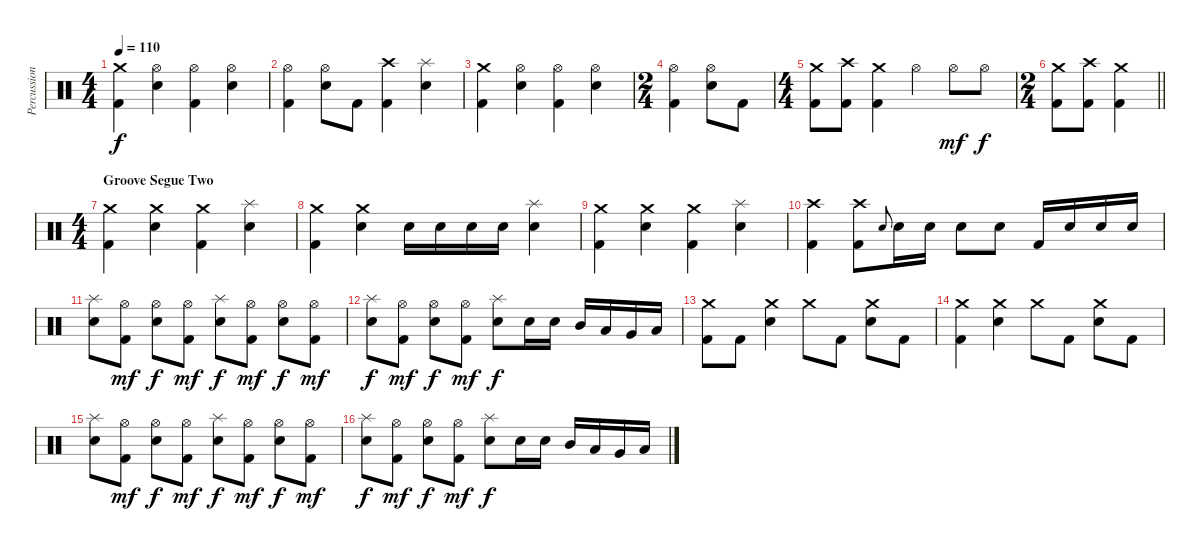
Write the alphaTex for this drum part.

\track ("Percussion" "Percussion") {instrument percussion}
\staff {score}
\articulation defaults
\ts (4 4)
\tempo 110
\clef neutral
\ks c
("Crash medium (hit)" "Kick (hit) 2").4{dy f} ("Hi-Hat (open)" "Electric Snare (hit)").4 ("Hi-Hat (open)" "Kick (hit) 2").4 ("Hi-Hat (open)" "Electric Snare (hit)").4 |
("Hi-Hat (open)" "Kick (hit) 2").4 ("Hi-Hat (open)" "Electric Snare (hit)").8 "Kick (hit) 2".8 ("Crash high (hit)" "Kick (hit) 2").4 ("Splash (hit)" "Electric Snare (hit)").4 |
("Crash medium (hit)" "Kick (hit) 2").4 ("Hi-Hat (open)" "Electric Snare (hit)").4 ("Hi-Hat (open)" "Kick (hit) 2").4 ("Hi-Hat (open)" "Electric Snare (hit)").4 |
\ts (2 4)
("Hi-Hat (open)" "Kick (hit) 2").4 ("Hi-Hat (open)" "Electric Snare (hit)").8 "Kick (hit) 2".8 |
\ts (4 4)
("Crash medium (hit)" "Kick (hit) 2").8 ("Crash high (hit)" "Kick (hit) 2").8 ("Crash medium (hit)" "Kick (hit) 2").4 "Hi-Hat (open)".4 "Hi-Hat (open)".8{dy mf} "Hi-Hat (open)".8{dy f} |
\ts (2 4)
\barLineRight lightlight
("Crash medium (hit)" "Kick (hit) 2").8 ("Crash high (hit)" "Kick (hit) 2").8 ("Crash medium (hit)" "Kick (hit) 2").4 |
\ts (4 4)
\section ("" "Groove Segue Two")
("Crash medium (hit)" "Kick (hit) 2").4 ("Crash medium (hit)" "Electric Snare (hit)").4 ("Crash medium (hit)" "Kick (hit) 2").4 ("Splash (hit)" "Electric Snare (hit)").4 |
("Crash medium (hit)" "Kick (hit) 2").4 ("Crash medium (hit)" "Electric Snare (hit)").4 "Electric Snare (hit)".16 "Electric Snare (hit)".16 "Electric Snare (hit)".16 "Electric Snare (hit)".16 ("Splash (hit)" "Electric Snare (hit)").4 |
("Crash medium (hit)" "Kick (hit) 2").4 ("Crash medium (hit)" "Electric Snare (hit)").4 ("Crash medium (hit)" "Kick (hit) 2").4 ("Splash (hit)" "Electric Snare (hit)").4 |
("Crash high (hit)" "Kick (hit) 2").4 ("Crash high (hit)" "Kick (hit) 2").8 "Electric Snare (hit)".8{gr onbeat} "Electric Snare (hit)".16 "Electric Snare (hit)".16 "Electric Snare (hit)".8 "Electric Snare (hit)".8 "Kick (hit) 2".16 "Electric Snare (hit)".16 "Electric Snare (hit)".16 "Electric Snare (hit)".16 |
("Splash (hit)" "Electric Snare (hit)").8 ("Hi-Hat (open)" "Kick (hit) 2").8{dy mf} ("Hi-Hat (open)" "Electric Snare (hit)").8{dy f} ("Hi-Hat (open)" "Kick (hit) 2").8{dy mf} ("Splash (hit)" "Electric Snare (hit)").8{dy f} ("Hi-Hat (open)" "Kick (hit) 2").8{dy mf} ("Hi-Hat (open)" "Electric Snare (hit)").8{dy f} ("Hi-Hat (open)" "Kick (hit) 2").8{dy mf} |
("Splash (hit)" "Electric Snare (hit)").8{dy f} ("Hi-Hat (open)" "Kick (hit) 2").8{dy mf} ("Hi-Hat (open)" "Electric Snare (hit)").8{dy f} ("Hi-Hat (open)" "Kick (hit) 2").8{dy mf} ("Splash (hit)" "Electric Snare (hit)").8{dy f} "Electric Snare (hit)".16 "Electric Snare (hit)".16 "Mid Tom (hit)".16 "Low Tom (hit)".16 "Very Low Tom (hit)".16 "Low Floor Tom (hit)".16 |
("Crash medium (hit)" "Kick (hit) 2").8 "Kick (hit) 2".8 ("Crash medium (hit)" "Electric Snare (hit)").4 "Crash medium (hit)".8 "Kick (hit) 2".8 ("Crash medium (hit)" "Electric Snare (hit)").8 "Kick (hit) 2".8 |
("Crash medium (hit)" "Kick (hit) 2").4 ("Crash medium (hit)" "Electric Snare (hit)").4 "Crash medium (hit)".8 "Kick (hit) 2".8 ("Crash medium (hit)" "Electric Snare (hit)").8 "Kick (hit) 2".8 |
("Splash (hit)" "Electric Snare (hit)").8 ("Hi-Hat (open)" "Kick (hit) 2").8{dy mf} ("Hi-Hat (open)" "Electric Snare (hit)").8{dy f} ("Hi-Hat (open)" "Kick (hit) 2").8{dy mf} ("Splash (hit)" "Electric Snare (hit)").8{dy f} ("Hi-Hat (open)" "Kick (hit) 2").8{dy mf} ("Hi-Hat (open)" "Electric Snare (hit)").8{dy f} ("Hi-Hat (open)" "Kick (hit) 2").8{dy mf} |
("Splash (hit)" "Electric Snare (hit)").8{dy f} ("Hi-Hat (open)" "Kick (hit) 2").8{dy mf} ("Hi-Hat (open)" "Electric Snare (hit)").8{dy f} ("Hi-Hat (open)" "Kick (hit) 2").8{dy mf} ("Splash (hit)" "Electric Snare (hit)").8{dy f} "Electric Snare (hit)".16 "Electric Snare (hit)".16 "Mid Tom (hit)".16 "Low Tom (hit)".16 "Very Low Tom (hit)".16 "Low Floor Tom (hit)".16
